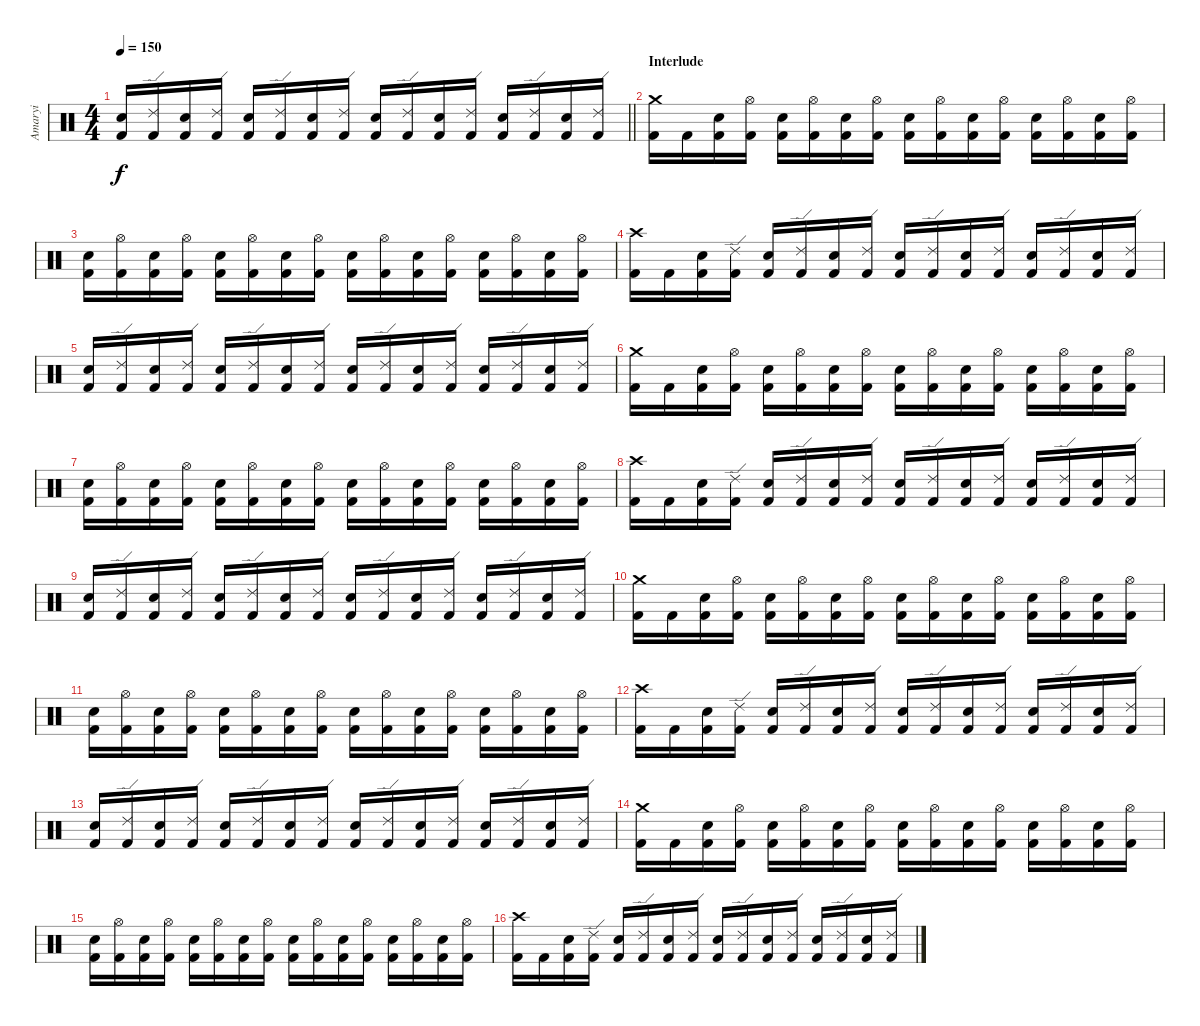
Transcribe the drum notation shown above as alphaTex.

\track ("Amaryi" "Amaryi") {instrument percussion}
\staff {score}
\articulation defaults
\ts (4 4)
\tempo 150
\clef neutral
\barLineRight lightlight
\ks c
("Electric Snare (hit)" "Kick (hit) 2").16{dy f} ("Ride (edge) 2" "Kick (hit) 2").16 ("Electric Snare (hit)" "Kick (hit) 2").16 ("Ride (edge) 2" "Kick (hit) 2").16 ("Electric Snare (hit)" "Kick (hit) 2").16 ("Ride (edge) 2" "Kick (hit) 2").16 ("Electric Snare (hit)" "Kick (hit) 2").16 ("Ride (edge) 2" "Kick (hit) 2").16 ("Electric Snare (hit)" "Kick (hit) 2").16 ("Ride (edge) 2" "Kick (hit) 2").16 ("Electric Snare (hit)" "Kick (hit) 2").16 ("Ride (edge) 2" "Kick (hit) 2").16 ("Electric Snare (hit)" "Kick (hit) 2").16 ("Ride (edge) 2" "Kick (hit) 2").16 ("Electric Snare (hit)" "Kick (hit) 2").16 ("Ride (edge) 2" "Kick (hit) 2").16 |
\section ("" "Interlude")
("Crash medium (hit)" "Kick (hit) 2").16 "Kick (hit) 2".16 ("Electric Snare (hit)" "Kick (hit) 2").16 ("Hi-Hat (open)" "Kick (hit) 2").16 ("Electric Snare (hit)" "Kick (hit) 2").16 ("Hi-Hat (open)" "Kick (hit) 2").16 ("Electric Snare (hit)" "Kick (hit) 2").16 ("Hi-Hat (open)" "Kick (hit) 2").16 ("Electric Snare (hit)" "Kick (hit) 2").16 ("Hi-Hat (open)" "Kick (hit) 2").16 ("Electric Snare (hit)" "Kick (hit) 2").16 ("Hi-Hat (open)" "Kick (hit) 2").16 ("Electric Snare (hit)" "Kick (hit) 2").16 ("Hi-Hat (open)" "Kick (hit) 2").16 ("Electric Snare (hit)" "Kick (hit) 2").16 ("Hi-Hat (open)" "Kick (hit) 2").16 |
("Electric Snare (hit)" "Kick (hit) 2").16 ("Hi-Hat (open)" "Kick (hit) 2").16 ("Electric Snare (hit)" "Kick (hit) 2").16 ("Hi-Hat (open)" "Kick (hit) 2").16 ("Electric Snare (hit)" "Kick (hit) 2").16 ("Hi-Hat (open)" "Kick (hit) 2").16 ("Electric Snare (hit)" "Kick (hit) 2").16 ("Hi-Hat (open)" "Kick (hit) 2").16 ("Electric Snare (hit)" "Kick (hit) 2").16 ("Hi-Hat (open)" "Kick (hit) 2").16 ("Electric Snare (hit)" "Kick (hit) 2").16 ("Hi-Hat (open)" "Kick (hit) 2").16 ("Electric Snare (hit)" "Kick (hit) 2").16 ("Hi-Hat (open)" "Kick (hit) 2").16 ("Electric Snare (hit)" "Kick (hit) 2").16 ("Hi-Hat (open)" "Kick (hit) 2").16 |
("Crash high (hit)" "Kick (hit) 2").16 "Kick (hit) 2".16 ("Electric Snare (hit)" "Kick (hit) 2").16 ("Ride (edge) 2" "Kick (hit) 2").16 ("Electric Snare (hit)" "Kick (hit) 2").16 ("Ride (edge) 2" "Kick (hit) 2").16 ("Electric Snare (hit)" "Kick (hit) 2").16 ("Ride (edge) 2" "Kick (hit) 2").16 ("Electric Snare (hit)" "Kick (hit) 2").16 ("Ride (edge) 2" "Kick (hit) 2").16 ("Electric Snare (hit)" "Kick (hit) 2").16 ("Ride (edge) 2" "Kick (hit) 2").16 ("Electric Snare (hit)" "Kick (hit) 2").16 ("Ride (edge) 2" "Kick (hit) 2").16 ("Electric Snare (hit)" "Kick (hit) 2").16 ("Ride (edge) 2" "Kick (hit) 2").16 |
("Electric Snare (hit)" "Kick (hit) 2").16 ("Ride (edge) 2" "Kick (hit) 2").16 ("Electric Snare (hit)" "Kick (hit) 2").16 ("Ride (edge) 2" "Kick (hit) 2").16 ("Electric Snare (hit)" "Kick (hit) 2").16 ("Ride (edge) 2" "Kick (hit) 2").16 ("Electric Snare (hit)" "Kick (hit) 2").16 ("Ride (edge) 2" "Kick (hit) 2").16 ("Electric Snare (hit)" "Kick (hit) 2").16 ("Ride (edge) 2" "Kick (hit) 2").16 ("Electric Snare (hit)" "Kick (hit) 2").16 ("Ride (edge) 2" "Kick (hit) 2").16 ("Electric Snare (hit)" "Kick (hit) 2").16 ("Ride (edge) 2" "Kick (hit) 2").16 ("Electric Snare (hit)" "Kick (hit) 2").16 ("Ride (edge) 2" "Kick (hit) 2").16 |
("Crash medium (hit)" "Kick (hit) 2").16 "Kick (hit) 2".16 ("Electric Snare (hit)" "Kick (hit) 2").16 ("Hi-Hat (open)" "Kick (hit) 2").16 ("Electric Snare (hit)" "Kick (hit) 2").16 ("Hi-Hat (open)" "Kick (hit) 2").16 ("Electric Snare (hit)" "Kick (hit) 2").16 ("Hi-Hat (open)" "Kick (hit) 2").16 ("Electric Snare (hit)" "Kick (hit) 2").16 ("Hi-Hat (open)" "Kick (hit) 2").16 ("Electric Snare (hit)" "Kick (hit) 2").16 ("Hi-Hat (open)" "Kick (hit) 2").16 ("Electric Snare (hit)" "Kick (hit) 2").16 ("Hi-Hat (open)" "Kick (hit) 2").16 ("Electric Snare (hit)" "Kick (hit) 2").16 ("Hi-Hat (open)" "Kick (hit) 2").16 |
("Electric Snare (hit)" "Kick (hit) 2").16 ("Hi-Hat (open)" "Kick (hit) 2").16 ("Electric Snare (hit)" "Kick (hit) 2").16 ("Hi-Hat (open)" "Kick (hit) 2").16 ("Electric Snare (hit)" "Kick (hit) 2").16 ("Hi-Hat (open)" "Kick (hit) 2").16 ("Electric Snare (hit)" "Kick (hit) 2").16 ("Hi-Hat (open)" "Kick (hit) 2").16 ("Electric Snare (hit)" "Kick (hit) 2").16 ("Hi-Hat (open)" "Kick (hit) 2").16 ("Electric Snare (hit)" "Kick (hit) 2").16 ("Hi-Hat (open)" "Kick (hit) 2").16 ("Electric Snare (hit)" "Kick (hit) 2").16 ("Hi-Hat (open)" "Kick (hit) 2").16 ("Electric Snare (hit)" "Kick (hit) 2").16 ("Hi-Hat (open)" "Kick (hit) 2").16 |
("Crash high (hit)" "Kick (hit) 2").16 "Kick (hit) 2".16 ("Electric Snare (hit)" "Kick (hit) 2").16 ("Ride (edge) 2" "Kick (hit) 2").16 ("Electric Snare (hit)" "Kick (hit) 2").16 ("Ride (edge) 2" "Kick (hit) 2").16 ("Electric Snare (hit)" "Kick (hit) 2").16 ("Ride (edge) 2" "Kick (hit) 2").16 ("Electric Snare (hit)" "Kick (hit) 2").16 ("Ride (edge) 2" "Kick (hit) 2").16 ("Electric Snare (hit)" "Kick (hit) 2").16 ("Ride (edge) 2" "Kick (hit) 2").16 ("Electric Snare (hit)" "Kick (hit) 2").16 ("Ride (edge) 2" "Kick (hit) 2").16 ("Electric Snare (hit)" "Kick (hit) 2").16 ("Ride (edge) 2" "Kick (hit) 2").16 |
("Electric Snare (hit)" "Kick (hit) 2").16 ("Ride (edge) 2" "Kick (hit) 2").16 ("Electric Snare (hit)" "Kick (hit) 2").16 ("Ride (edge) 2" "Kick (hit) 2").16 ("Electric Snare (hit)" "Kick (hit) 2").16 ("Ride (edge) 2" "Kick (hit) 2").16 ("Electric Snare (hit)" "Kick (hit) 2").16 ("Ride (edge) 2" "Kick (hit) 2").16 ("Electric Snare (hit)" "Kick (hit) 2").16 ("Ride (edge) 2" "Kick (hit) 2").16 ("Electric Snare (hit)" "Kick (hit) 2").16 ("Ride (edge) 2" "Kick (hit) 2").16 ("Electric Snare (hit)" "Kick (hit) 2").16 ("Ride (edge) 2" "Kick (hit) 2").16 ("Electric Snare (hit)" "Kick (hit) 2").16 ("Ride (edge) 2" "Kick (hit) 2").16 |
("Crash medium (hit)" "Kick (hit) 2").16 "Kick (hit) 2".16 ("Electric Snare (hit)" "Kick (hit) 2").16 ("Hi-Hat (open)" "Kick (hit) 2").16 ("Electric Snare (hit)" "Kick (hit) 2").16 ("Hi-Hat (open)" "Kick (hit) 2").16 ("Electric Snare (hit)" "Kick (hit) 2").16 ("Hi-Hat (open)" "Kick (hit) 2").16 ("Electric Snare (hit)" "Kick (hit) 2").16 ("Hi-Hat (open)" "Kick (hit) 2").16 ("Electric Snare (hit)" "Kick (hit) 2").16 ("Hi-Hat (open)" "Kick (hit) 2").16 ("Electric Snare (hit)" "Kick (hit) 2").16 ("Hi-Hat (open)" "Kick (hit) 2").16 ("Electric Snare (hit)" "Kick (hit) 2").16 ("Hi-Hat (open)" "Kick (hit) 2").16 |
("Electric Snare (hit)" "Kick (hit) 2").16 ("Hi-Hat (open)" "Kick (hit) 2").16 ("Electric Snare (hit)" "Kick (hit) 2").16 ("Hi-Hat (open)" "Kick (hit) 2").16 ("Electric Snare (hit)" "Kick (hit) 2").16 ("Hi-Hat (open)" "Kick (hit) 2").16 ("Electric Snare (hit)" "Kick (hit) 2").16 ("Hi-Hat (open)" "Kick (hit) 2").16 ("Electric Snare (hit)" "Kick (hit) 2").16 ("Hi-Hat (open)" "Kick (hit) 2").16 ("Electric Snare (hit)" "Kick (hit) 2").16 ("Hi-Hat (open)" "Kick (hit) 2").16 ("Electric Snare (hit)" "Kick (hit) 2").16 ("Hi-Hat (open)" "Kick (hit) 2").16 ("Electric Snare (hit)" "Kick (hit) 2").16 ("Hi-Hat (open)" "Kick (hit) 2").16 |
("Crash high (hit)" "Kick (hit) 2").16 "Kick (hit) 2".16 ("Electric Snare (hit)" "Kick (hit) 2").16 ("Ride (edge) 2" "Kick (hit) 2").16 ("Electric Snare (hit)" "Kick (hit) 2").16 ("Ride (edge) 2" "Kick (hit) 2").16 ("Electric Snare (hit)" "Kick (hit) 2").16 ("Ride (edge) 2" "Kick (hit) 2").16 ("Electric Snare (hit)" "Kick (hit) 2").16 ("Ride (edge) 2" "Kick (hit) 2").16 ("Electric Snare (hit)" "Kick (hit) 2").16 ("Ride (edge) 2" "Kick (hit) 2").16 ("Electric Snare (hit)" "Kick (hit) 2").16 ("Ride (edge) 2" "Kick (hit) 2").16 ("Electric Snare (hit)" "Kick (hit) 2").16 ("Ride (edge) 2" "Kick (hit) 2").16 |
("Electric Snare (hit)" "Kick (hit) 2").16 ("Ride (edge) 2" "Kick (hit) 2").16 ("Electric Snare (hit)" "Kick (hit) 2").16 ("Ride (edge) 2" "Kick (hit) 2").16 ("Electric Snare (hit)" "Kick (hit) 2").16 ("Ride (edge) 2" "Kick (hit) 2").16 ("Electric Snare (hit)" "Kick (hit) 2").16 ("Ride (edge) 2" "Kick (hit) 2").16 ("Electric Snare (hit)" "Kick (hit) 2").16 ("Ride (edge) 2" "Kick (hit) 2").16 ("Electric Snare (hit)" "Kick (hit) 2").16 ("Ride (edge) 2" "Kick (hit) 2").16 ("Electric Snare (hit)" "Kick (hit) 2").16 ("Ride (edge) 2" "Kick (hit) 2").16 ("Electric Snare (hit)" "Kick (hit) 2").16 ("Ride (edge) 2" "Kick (hit) 2").16 |
("Crash medium (hit)" "Kick (hit) 2").16 "Kick (hit) 2".16 ("Electric Snare (hit)" "Kick (hit) 2").16 ("Hi-Hat (open)" "Kick (hit) 2").16 ("Electric Snare (hit)" "Kick (hit) 2").16 ("Hi-Hat (open)" "Kick (hit) 2").16 ("Electric Snare (hit)" "Kick (hit) 2").16 ("Hi-Hat (open)" "Kick (hit) 2").16 ("Electric Snare (hit)" "Kick (hit) 2").16 ("Hi-Hat (open)" "Kick (hit) 2").16 ("Electric Snare (hit)" "Kick (hit) 2").16 ("Hi-Hat (open)" "Kick (hit) 2").16 ("Electric Snare (hit)" "Kick (hit) 2").16 ("Hi-Hat (open)" "Kick (hit) 2").16 ("Electric Snare (hit)" "Kick (hit) 2").16 ("Hi-Hat (open)" "Kick (hit) 2").16 |
("Electric Snare (hit)" "Kick (hit) 2").16 ("Hi-Hat (open)" "Kick (hit) 2").16 ("Electric Snare (hit)" "Kick (hit) 2").16 ("Hi-Hat (open)" "Kick (hit) 2").16 ("Electric Snare (hit)" "Kick (hit) 2").16 ("Hi-Hat (open)" "Kick (hit) 2").16 ("Electric Snare (hit)" "Kick (hit) 2").16 ("Hi-Hat (open)" "Kick (hit) 2").16 ("Electric Snare (hit)" "Kick (hit) 2").16 ("Hi-Hat (open)" "Kick (hit) 2").16 ("Electric Snare (hit)" "Kick (hit) 2").16 ("Hi-Hat (open)" "Kick (hit) 2").16 ("Electric Snare (hit)" "Kick (hit) 2").16 ("Hi-Hat (open)" "Kick (hit) 2").16 ("Electric Snare (hit)" "Kick (hit) 2").16 ("Hi-Hat (open)" "Kick (hit) 2").16 |
("Crash high (hit)" "Kick (hit) 2").16 "Kick (hit) 2".16 ("Electric Snare (hit)" "Kick (hit) 2").16 ("Ride (edge) 2" "Kick (hit) 2").16 ("Electric Snare (hit)" "Kick (hit) 2").16 ("Ride (edge) 2" "Kick (hit) 2").16 ("Electric Snare (hit)" "Kick (hit) 2").16 ("Ride (edge) 2" "Kick (hit) 2").16 ("Electric Snare (hit)" "Kick (hit) 2").16 ("Ride (edge) 2" "Kick (hit) 2").16 ("Electric Snare (hit)" "Kick (hit) 2").16 ("Ride (edge) 2" "Kick (hit) 2").16 ("Electric Snare (hit)" "Kick (hit) 2").16 ("Ride (edge) 2" "Kick (hit) 2").16 ("Electric Snare (hit)" "Kick (hit) 2").16 ("Ride (edge) 2" "Kick (hit) 2").16
